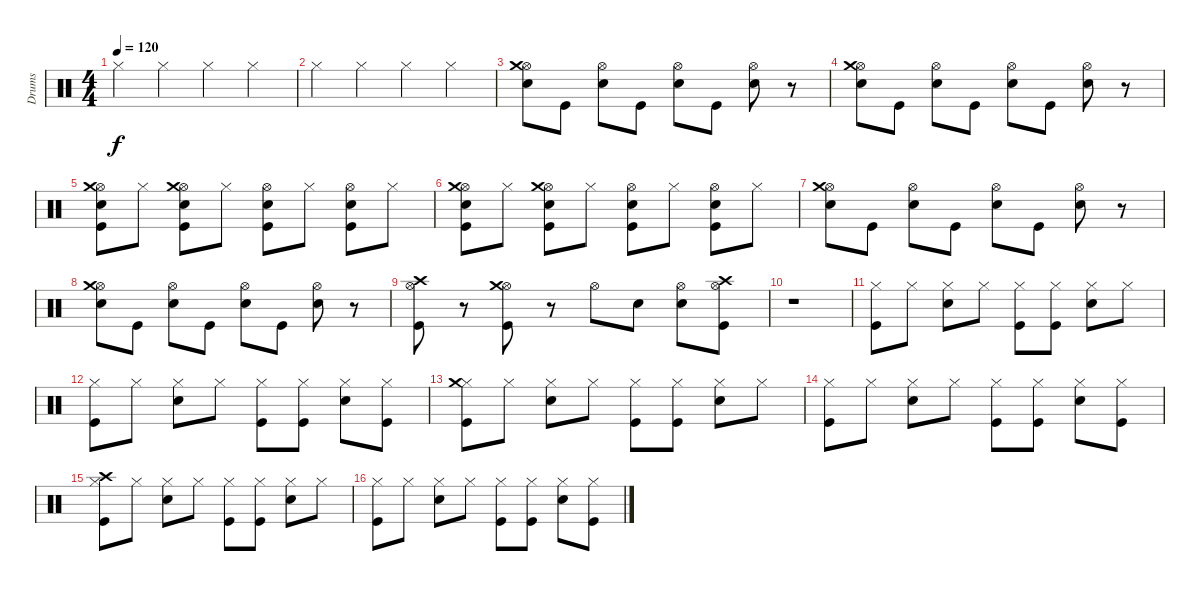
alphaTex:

\track ("Drums" "Drums") {instrument percussion}
\staff {score}
\articulation defaults
\ts (4 4)
\tempo 120
\clef neutral
\ks c "Hi-Hat (closed)".4{dy f} "Hi-Hat (closed)".4 "Hi-Hat (closed)".4 "Hi-Hat (closed)".4
|
"Hi-Hat (closed)".4 "Hi-Hat (closed)".4 "Hi-Hat (closed)".4 "Hi-Hat (closed)".4 |
("Hi-Hat (open)" "Crash medium (hit)" "Snare (hit) 2").8 "Kick (hit)".8 ("Hi-Hat (open)" "Snare (hit) 2").8 "Kick (hit)".8 ("Hi-Hat (open)" "Snare (hit) 2").8 "Kick (hit)".8 ("Hi-Hat (open)" "Snare (hit) 2").8 r.8 |
("Hi-Hat (open)" "Crash medium (hit)" "Snare (hit) 2").8 "Kick (hit)".8 ("Hi-Hat (open)" "Snare (hit) 2").8 "Kick (hit)".8 ("Hi-Hat (open)" "Snare (hit) 2").8 "Kick (hit)".8 ("Hi-Hat (open)" "Snare (hit) 2").8 r.8 |
("Hi-Hat (open)" "Crash medium (hit)" "Snare (hit) 2" "Kick (hit)").8 "Hi-Hat (closed)".8 ("Hi-Hat (open)" "Crash medium (hit)" "Snare (hit) 2" "Kick (hit)").8 "Hi-Hat (closed)".8 ("Hi-Hat (open)" "Snare (hit) 2" "Kick (hit)").8 "Hi-Hat (closed)".8 ("Hi-Hat (open)" "Snare (hit) 2" "Kick (hit)").8 "Hi-Hat (closed)".8 |
("Hi-Hat (open)" "Crash medium (hit)" "Snare (hit) 2" "Kick (hit)").8 "Hi-Hat (closed)".8 ("Hi-Hat (open)" "Crash medium (hit)" "Snare (hit) 2" "Kick (hit)").8 "Hi-Hat (closed)".8 ("Hi-Hat (open)" "Snare (hit) 2" "Kick (hit)").8 "Hi-Hat (closed)".8 ("Hi-Hat (open)" "Snare (hit) 2" "Kick (hit)").8 "Hi-Hat (closed)".8 |
("Hi-Hat (open)" "Crash medium (hit)" "Snare (hit) 2").8 "Kick (hit)".8 ("Hi-Hat (open)" "Snare (hit) 2").8 "Kick (hit)".8 ("Hi-Hat (open)" "Snare (hit) 2").8 "Kick (hit)".8 ("Hi-Hat (open)" "Snare (hit) 2").8 r.8 |
("Hi-Hat (open)" "Crash medium (hit)" "Snare (hit) 2").8 "Kick (hit)".8 ("Hi-Hat (open)" "Snare (hit) 2").8 "Kick (hit)".8 ("Hi-Hat (open)" "Snare (hit) 2").8 "Kick (hit)".8 ("Hi-Hat (open)" "Snare (hit) 2").8 r.8 |
("Hi-Hat (open)" "Crash high (hit)" "Kick (hit)").8 r.8 ("Hi-Hat (open)" "Crash medium (hit)" "Kick (hit)").8 r.8 "Hi-Hat (open)".8 "Snare (hit) 2".8 ("Hi-Hat (open)" "Snare (hit) 2").8 ("Hi-Hat (open)" "Crash high (hit)" "Kick (hit)").8 |
r.1 |
("Hi-Hat (closed)" "Kick (hit)").8 "Hi-Hat (closed)".8 ("Hi-Hat (closed)" "Snare (hit) 2").8 "Hi-Hat (closed)".8 ("Hi-Hat (closed)" "Kick (hit)").8 ("Hi-Hat (closed)" "Kick (hit)").8 ("Hi-Hat (closed)" "Snare (hit) 2").8 "Hi-Hat (closed)".8 |
("Hi-Hat (closed)" "Kick (hit)").8 "Hi-Hat (closed)".8 ("Hi-Hat (closed)" "Snare (hit) 2").8 "Hi-Hat (closed)".8 ("Hi-Hat (closed)" "Kick (hit)").8 ("Hi-Hat (closed)" "Kick (hit)").8 ("Hi-Hat (closed)" "Snare (hit) 2").8 ("Hi-Hat (closed)" "Kick (hit)").8 |
("Hi-Hat (closed)" "Crash medium (hit)" "Kick (hit)").8 "Hi-Hat (closed)".8 ("Hi-Hat (closed)" "Snare (hit) 2").8 "Hi-Hat (closed)".8 ("Hi-Hat (closed)" "Kick (hit)").8 ("Hi-Hat (closed)" "Kick (hit)").8 ("Hi-Hat (closed)" "Snare (hit) 2").8 "Hi-Hat (closed)".8 |
("Hi-Hat (closed)" "Kick (hit)").8 "Hi-Hat (closed)".8 ("Hi-Hat (closed)" "Snare (hit) 2").8 "Hi-Hat (closed)".8 ("Hi-Hat (closed)" "Kick (hit)").8 ("Hi-Hat (closed)" "Kick (hit)").8 ("Hi-Hat (closed)" "Snare (hit) 2").8 ("Hi-Hat (closed)" "Kick (hit)").8 |
("Hi-Hat (closed)" "Crash high (hit)" "Kick (hit)").8 "Hi-Hat (closed)".8 ("Hi-Hat (closed)" "Snare (hit) 2").8 "Hi-Hat (closed)".8 ("Hi-Hat (closed)" "Kick (hit)").8 ("Hi-Hat (closed)" "Kick (hit)").8 ("Hi-Hat (closed)" "Snare (hit) 2").8 "Hi-Hat (closed)".8 |
("Hi-Hat (closed)" "Kick (hit)").8 "Hi-Hat (closed)".8 ("Hi-Hat (closed)" "Snare (hit) 2").8 "Hi-Hat (closed)".8 ("Hi-Hat (closed)" "Kick (hit)").8 ("Hi-Hat (closed)" "Kick (hit)").8 ("Hi-Hat (closed)" "Snare (hit) 2").8 ("Hi-Hat (closed)" "Kick (hit)").8
